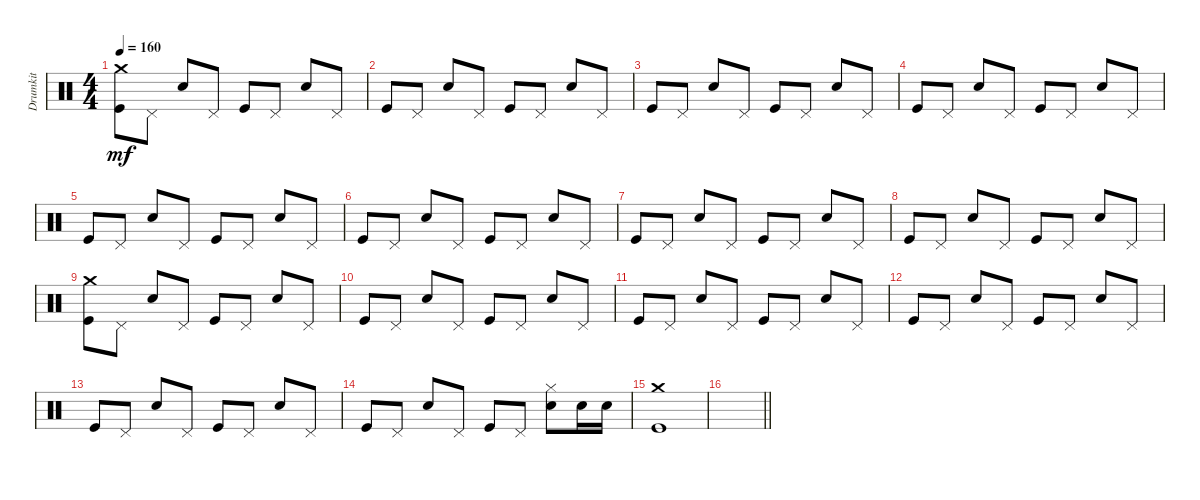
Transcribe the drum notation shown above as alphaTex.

\track ("Drumkit" "Drumkit") {instrument percussion}
\staff {score}
\articulation defaults
\ts (4 4)
\tempo 160
\clef neutral
\ks c
("Kick (hit)" "Crash medium (hit)").8{dy mf} "Pedal Hi-Hat (hit)".8 "Snare (hit) 2".8 "Pedal Hi-Hat (hit)".8 "Kick (hit)".8 "Pedal Hi-Hat (hit)".8 "Snare (hit) 2".8 "Pedal Hi-Hat (hit)".8 |
"Kick (hit)".8 "Pedal Hi-Hat (hit)".8 "Snare (hit) 2".8 "Pedal Hi-Hat (hit)".8 "Kick (hit)".8 "Pedal Hi-Hat (hit)".8 "Snare (hit) 2".8 "Pedal Hi-Hat (hit)".8 |
"Kick (hit)".8 "Pedal Hi-Hat (hit)".8 "Snare (hit) 2".8 "Pedal Hi-Hat (hit)".8 "Kick (hit)".8 "Pedal Hi-Hat (hit)".8 "Snare (hit) 2".8 "Pedal Hi-Hat (hit)".8 |
"Kick (hit)".8 "Pedal Hi-Hat (hit)".8 "Snare (hit) 2".8 "Pedal Hi-Hat (hit)".8 "Kick (hit)".8 "Pedal Hi-Hat (hit)".8 "Snare (hit) 2".8 "Pedal Hi-Hat (hit)".8 |
"Kick (hit)".8 "Pedal Hi-Hat (hit)".8 "Snare (hit) 2".8 "Pedal Hi-Hat (hit)".8 "Kick (hit)".8 "Pedal Hi-Hat (hit)".8 "Snare (hit) 2".8 "Pedal Hi-Hat (hit)".8 |
"Kick (hit)".8 "Pedal Hi-Hat (hit)".8 "Snare (hit) 2".8 "Pedal Hi-Hat (hit)".8 "Kick (hit)".8 "Pedal Hi-Hat (hit)".8 "Snare (hit) 2".8 "Pedal Hi-Hat (hit)".8 |
"Kick (hit)".8 "Pedal Hi-Hat (hit)".8 "Snare (hit) 2".8 "Pedal Hi-Hat (hit)".8 "Kick (hit)".8 "Pedal Hi-Hat (hit)".8 "Snare (hit) 2".8 "Pedal Hi-Hat (hit)".8 |
"Kick (hit)".8 "Pedal Hi-Hat (hit)".8 "Snare (hit) 2".8 "Pedal Hi-Hat (hit)".8 "Kick (hit)".8 "Pedal Hi-Hat (hit)".8 "Snare (hit) 2".8 "Pedal Hi-Hat (hit)".8 |
("Crash medium (hit)" "Kick (hit)").8 "Pedal Hi-Hat (hit)".8 "Snare (hit) 2".8 "Pedal Hi-Hat (hit)".8 "Kick (hit)".8 "Pedal Hi-Hat (hit)".8 "Snare (hit) 2".8 "Pedal Hi-Hat (hit)".8 |
"Kick (hit)".8 "Pedal Hi-Hat (hit)".8 "Snare (hit) 2".8 "Pedal Hi-Hat (hit)".8 "Kick (hit)".8 "Pedal Hi-Hat (hit)".8 "Snare (hit) 2".8 "Pedal Hi-Hat (hit)".8 |
"Kick (hit)".8 "Pedal Hi-Hat (hit)".8 "Snare (hit) 2".8 "Pedal Hi-Hat (hit)".8 "Kick (hit)".8 "Pedal Hi-Hat (hit)".8 "Snare (hit) 2".8 "Pedal Hi-Hat (hit)".8 |
"Kick (hit)".8 "Pedal Hi-Hat (hit)".8 "Snare (hit) 2".8 "Pedal Hi-Hat (hit)".8 "Kick (hit)".8 "Pedal Hi-Hat (hit)".8 "Snare (hit) 2".8 "Pedal Hi-Hat (hit)".8 |
"Kick (hit)".8 "Pedal Hi-Hat (hit)".8 "Snare (hit) 2".8 "Pedal Hi-Hat (hit)".8 "Kick (hit)".8 "Pedal Hi-Hat (hit)".8 "Snare (hit) 2".8 "Pedal Hi-Hat (hit)".8 |
"Kick (hit)".8 "Pedal Hi-Hat (hit)".8 "Snare (hit) 2".8 "Pedal Hi-Hat (hit)".8 "Kick (hit)".8 "Pedal Hi-Hat (hit)".8 ("Hi-Hat (closed)" "Snare (hit) 2").8 "Snare (hit) 2".16 "Snare (hit) 2".16 |
("Crash medium (hit)" "Kick (hit)").1 |
\barLineRight lightlight
